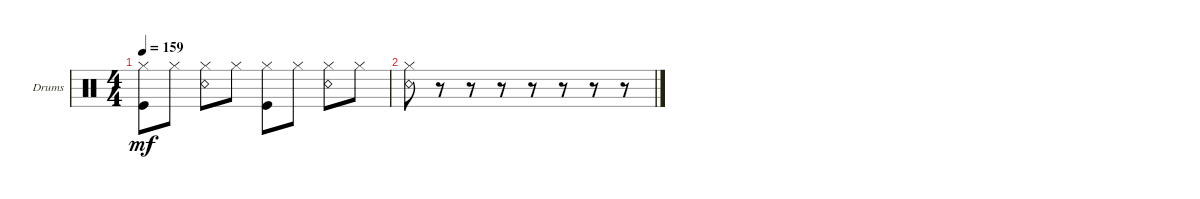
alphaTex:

\defaultSystemsLayout 4
\bracketExtendMode groupsimilarinstruments
\firstSystemTrackNameOrientation horizontal
\otherSystemsTrackNameOrientation horizontal
\track ("Drumkit" "Drums") {instrument percussion}
\staff {score}
\articulation defaults
\ts (4 4)
\tempo 159
\clef neutral
\ks c
("Kick (hit)" "Hi-Hat (closed)").8{dy mf} "Hi-Hat (closed)".8 ("Hi-Hat (closed)" "Snare (rim shot)").8 "Hi-Hat (closed)".8 ("Hi-Hat (closed)" "Kick (hit)").8 "Hi-Hat (closed)".8 ("Hi-Hat (closed)" "Snare (rim shot)").8 "Hi-Hat (closed)".8 |
("Snare (rim shot)" "Hi-Hat (closed)").8 r.8 r.8 r.8 r.8 r.8 r.8 r.8
